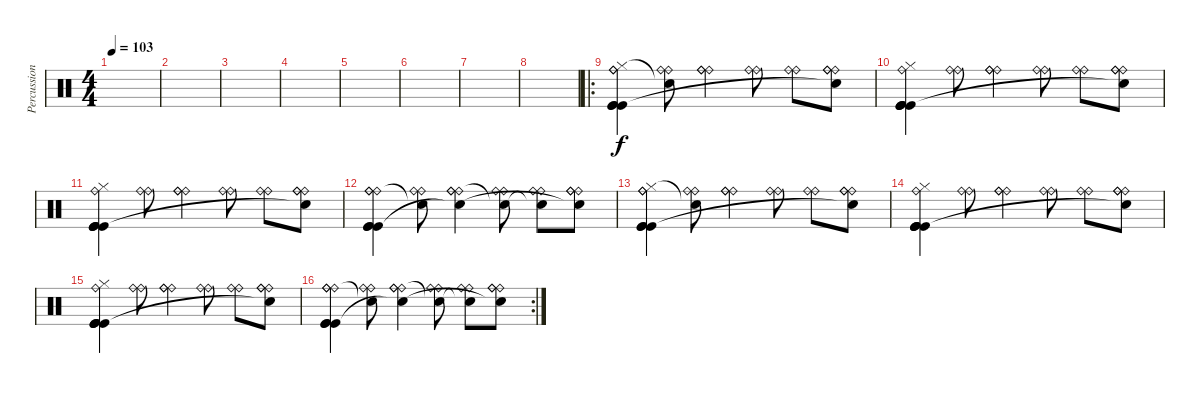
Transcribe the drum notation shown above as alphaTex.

\track ("Percussion" "Percussion") {instrument percussion}
\staff {score}
\articulation defaults
\ts (4 4)
\tempo 103
\clef neutral
\ks c
|
|
|
|
|
|
|
|
\ro
("Kick (hit)" "Ride (bell)" "Hi-Hat (closed)" "Kick (hit)" "Ride (bell)" "Kick (hit)").4 ("Ride (bell)" "Ride (bell)" "Snare (hit)"{t}).8 ("Ride (bell)" "Ride (bell)" "Ride (bell)").4 ("Ride (bell)" "Ride (bell)").8 ("Ride (bell)" "Ride (bell)").8 ("Ride (bell)" "Ride (bell)" "Ride (bell)" "Snare (hit)"{t}).8 |
("Kick (hit)" "Ride (bell)" "Hi-Hat (closed)" "Kick (hit)" "Kick (hit)" "Kick (hit)").4 ("Ride (bell)" "Ride (bell)").8 ("Ride (bell)" "Ride (bell)" "Ride (bell)").4 ("Ride (bell)" "Ride (bell)").8 ("Ride (bell)" "Ride (bell)").8 ("Ride (bell)" "Ride (bell)" "Ride (bell)" "Snare (hit)"{t}).8 |
("Kick (hit)" "Ride (bell)" "Hi-Hat (closed)" "Kick (hit)" "Kick (hit)" "Kick (hit)").4 ("Ride (bell)" "Ride (bell)").8 ("Ride (bell)" "Ride (bell)" "Ride (bell)").4 ("Ride (bell)" "Ride (bell)").8 ("Ride (bell)" "Ride (bell)").8 ("Ride (bell)" "Ride (bell)" "Ride (bell)" "Snare (hit)"{t}).8 |
("Kick (hit)" "Ride (bell)" "Ride (bell)" "Kick (hit)" "Ride (bell)" "Kick (hit)").4 ("Ride (bell)" "Ride (bell)" "Snare (hit)"{t}).8 ("Ride (bell)" "Ride (bell)" "Ride (bell)" "Snare (hit)"{t}).4 ("Ride (bell)" "Ride (bell)" "Snare (hit)"{t}).8 ("Ride (bell)" "Ride (bell)" "Snare (hit)"{t}).8 ("Ride (bell)" "Ride (bell)" "Ride (bell)" "Snare (hit)"{t}).8 |
("Kick (hit)" "Ride (bell)" "Hi-Hat (closed)" "Kick (hit)" "Ride (bell)" "Kick (hit)").4 ("Ride (bell)" "Ride (bell)" "Snare (hit)"{t}).8 ("Ride (bell)" "Ride (bell)" "Ride (bell)").4 ("Ride (bell)" "Ride (bell)").8 ("Ride (bell)" "Ride (bell)").8 ("Ride (bell)" "Ride (bell)" "Ride (bell)" "Snare (hit)"{t}).8 |
("Kick (hit)" "Ride (bell)" "Hi-Hat (closed)" "Kick (hit)" "Kick (hit)" "Kick (hit)").4 ("Ride (bell)" "Ride (bell)").8 ("Ride (bell)" "Ride (bell)" "Ride (bell)").4 ("Ride (bell)" "Ride (bell)").8 ("Ride (bell)" "Ride (bell)").8 ("Ride (bell)" "Ride (bell)" "Ride (bell)" "Snare (hit)"{t}).8 |
("Kick (hit)" "Ride (bell)" "Hi-Hat (closed)" "Kick (hit)" "Kick (hit)" "Kick (hit)").4 ("Ride (bell)" "Ride (bell)").8 ("Ride (bell)" "Ride (bell)" "Ride (bell)").4 ("Ride (bell)" "Ride (bell)").8 ("Ride (bell)" "Ride (bell)").8 ("Ride (bell)" "Ride (bell)" "Ride (bell)" "Snare (hit)"{t}).8 |
\rc 2
("Kick (hit)" "Ride (bell)" "Ride (bell)" "Kick (hit)" "Ride (bell)" "Kick (hit)").4 ("Ride (bell)" "Ride (bell)" "Snare (hit)"{t}).8 ("Ride (bell)" "Ride (bell)" "Ride (bell)" "Snare (hit)"{t}).4 ("Ride (bell)" "Ride (bell)" "Snare (hit)"{t}).8 ("Ride (bell)" "Ride (bell)" "Snare (hit)"{t}).8 ("Ride (bell)" "Ride (bell)" "Ride (bell)" "Snare (hit)"{t}).8
